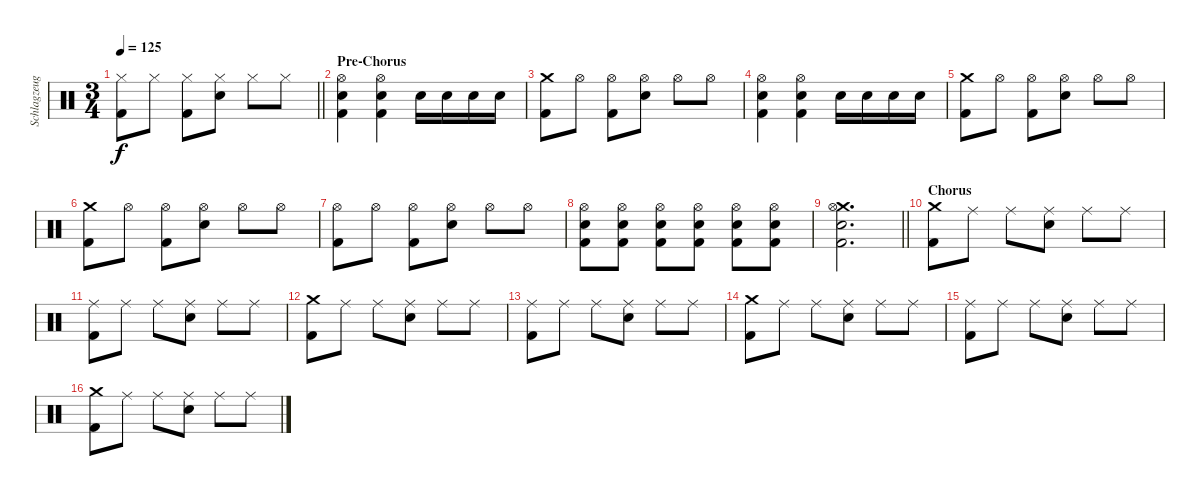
\track ("Schlagzeug" "Schlagzeug") {instrument percussion}
\staff {score}
\articulation defaults
\ts (3 4)
\tempo 125
\clef neutral
\barLineRight lightlight
\ks c
("Hi-Hat (closed)" "Kick (hit) 2").8{dy f} "Hi-Hat (closed)".8 ("Hi-Hat (closed)" "Kick (hit) 2").8 ("Hi-Hat (closed)" "Snare (hit) 2").8 "Hi-Hat (closed)".8 "Hi-Hat (closed)".8 |
\section ("" "Pre-Chorus")
("Hi-Hat (open)" "Snare (hit) 2" "Kick (hit) 2").4 ("Hi-Hat (open)" "Snare (hit) 2" "Kick (hit) 2").4 "Snare (hit) 2".16 "Snare (hit) 2".16 "Snare (hit) 2".16 "Snare (hit) 2".16 |
("Crash medium (hit)" "Kick (hit) 2").8 "Hi-Hat (open)".8 ("Hi-Hat (open)" "Kick (hit) 2").8 ("Hi-Hat (open)" "Snare (hit) 2").8 "Hi-Hat (open)".8 "Hi-Hat (open)".8 |
("Hi-Hat (open)" "Snare (hit) 2" "Kick (hit) 2").4 ("Hi-Hat (open)" "Snare (hit) 2" "Kick (hit) 2").4 "Snare (hit) 2".16 "Snare (hit) 2".16 "Snare (hit) 2".16 "Snare (hit) 2".16 |
("Crash medium (hit)" "Kick (hit) 2").8 "Hi-Hat (open)".8 ("Hi-Hat (open)" "Kick (hit) 2").8 ("Hi-Hat (open)" "Snare (hit) 2").8 "Hi-Hat (open)".8 "Hi-Hat (open)".8 |
("Crash medium (hit)" "Kick (hit) 2").8 "Hi-Hat (open)".8 ("Hi-Hat (open)" "Kick (hit) 2").8 ("Hi-Hat (open)" "Snare (hit) 2").8 "Hi-Hat (open)".8 "Hi-Hat (open)".8 |
("Hi-Hat (open)" "Kick (hit) 2").8 "Hi-Hat (open)".8 ("Hi-Hat (open)" "Kick (hit) 2").8 ("Hi-Hat (open)" "Snare (hit) 2").8 "Hi-Hat (open)".8 "Hi-Hat (open)".8 |
("Hi-Hat (open)" "Snare (hit) 2" "Kick (hit) 2").8 ("Hi-Hat (open)" "Snare (hit) 2" "Kick (hit) 2").8 ("Hi-Hat (open)" "Snare (hit) 2" "Kick (hit) 2").8 ("Hi-Hat (open)" "Snare (hit) 2" "Kick (hit) 2").8 ("Hi-Hat (open)" "Snare (hit) 2" "Kick (hit) 2").8 ("Hi-Hat (open)" "Snare (hit) 2" "Kick (hit) 2").8 |
\barLineRight lightlight
("Crash medium (hit)" "Hi-Hat (open)" "Snare (hit) 2" "Kick (hit) 2").2{d} |
\section ("" "Chorus")
("Crash medium (hit)" "Kick (hit) 2").8 "Ride (middle)".8 "Ride (middle)".8 ("Ride (middle)" "Snare (hit) 2").8 "Ride (middle)".8 "Ride (middle)".8 |
("Ride (middle)" "Kick (hit) 2").8 "Ride (middle)".8 "Ride (middle)".8 ("Ride (middle)" "Snare (hit) 2").8 "Ride (middle)".8 "Ride (middle)".8 |
("Crash medium (hit)" "Kick (hit) 2").8 "Ride (middle)".8 "Ride (middle)".8 ("Ride (middle)" "Snare (hit) 2").8 "Ride (middle)".8 "Ride (middle)".8 |
("Ride (middle)" "Kick (hit) 2").8 "Ride (middle)".8 "Ride (middle)".8 ("Ride (middle)" "Snare (hit) 2").8 "Ride (middle)".8 "Ride (middle)".8 |
("Crash medium (hit)" "Kick (hit) 2").8 "Ride (middle)".8 "Ride (middle)".8 ("Ride (middle)" "Snare (hit) 2").8 "Ride (middle)".8 "Ride (middle)".8 |
("Ride (middle)" "Kick (hit) 2").8 "Ride (middle)".8 "Ride (middle)".8 ("Ride (middle)" "Snare (hit) 2").8 "Ride (middle)".8 "Ride (middle)".8 |
("Crash medium (hit)" "Kick (hit) 2").8 "Ride (middle)".8 "Ride (middle)".8 ("Ride (middle)" "Snare (hit) 2").8 "Ride (middle)".8 "Ride (middle)".8
